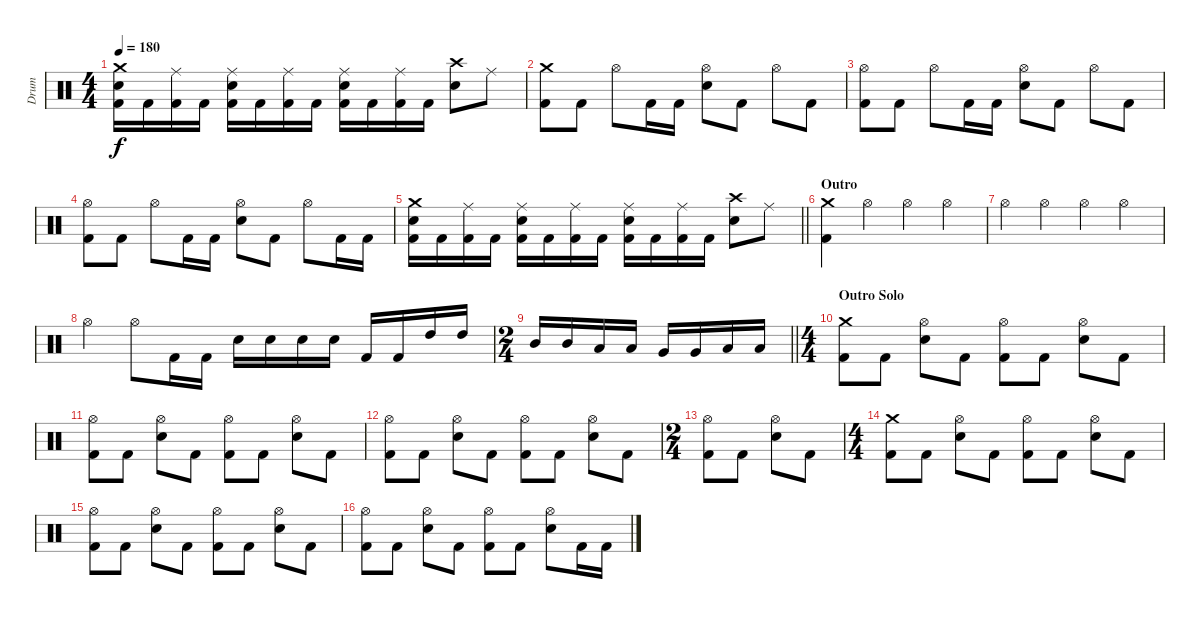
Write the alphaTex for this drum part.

\track ("Drum" "Drum") {instrument percussion}
\staff {score}
\articulation defaults
\ts (4 4)
\tempo 180
\clef neutral
\ks c
("Crash medium (hit)" "Electric Snare (hit)" "Kick (hit) 2").16{dy f} "Kick (hit) 2".16 ("Ride (middle)" "Kick (hit) 2").16 "Kick (hit) 2".16 ("Ride (middle)" "Electric Snare (hit)" "Kick (hit) 2").16 "Kick (hit) 2".16 ("Ride (middle)" "Kick (hit) 2").16 "Kick (hit) 2".16 ("Ride (middle)" "Electric Snare (hit)" "Kick (hit) 2").16 "Kick (hit) 2".16 ("Ride (middle)" "Kick (hit) 2").16 "Kick (hit) 2".16 ("Crash high (hit)" "Electric Snare (hit)").8 "Ride (middle)".8 |
("Crash medium (hit)" "Kick (hit) 2").8 "Kick (hit) 2".8 "Hi-Hat (open)".8 "Kick (hit) 2".16 "Kick (hit) 2".16 ("Hi-Hat (open)" "Electric Snare (hit)").8 "Kick (hit) 2".8 "Hi-Hat (open)".8 "Kick (hit) 2".8 |
("Hi-Hat (open)" "Kick (hit) 2").8 "Kick (hit) 2".8 "Hi-Hat (open)".8 "Kick (hit) 2".16 "Kick (hit) 2".16 ("Hi-Hat (open)" "Electric Snare (hit)").8 "Kick (hit) 2".8 "Hi-Hat (open)".8 "Kick (hit) 2".8 |
("Hi-Hat (open)" "Kick (hit) 2").8 "Kick (hit) 2".8 "Hi-Hat (open)".8 "Kick (hit) 2".16 "Kick (hit) 2".16 ("Hi-Hat (open)" "Electric Snare (hit)").8 "Kick (hit) 2".8 "Hi-Hat (open)".8 "Kick (hit) 2".16 "Kick (hit) 2".16 |
\barLineRight lightlight
("Crash medium (hit)" "Electric Snare (hit)" "Kick (hit) 2").16 "Kick (hit) 2".16 ("Ride (middle)" "Kick (hit) 2").16 "Kick (hit) 2".16 ("Ride (middle)" "Electric Snare (hit)" "Kick (hit) 2").16 "Kick (hit) 2".16 ("Ride (middle)" "Kick (hit) 2").16 "Kick (hit) 2".16 ("Ride (middle)" "Electric Snare (hit)" "Kick (hit) 2").16 "Kick (hit) 2".16 ("Ride (middle)" "Kick (hit) 2").16 "Kick (hit) 2".16 ("Crash high (hit)" "Electric Snare (hit)").8 "Ride (middle)".8 |
\section ("" "Outro")
("Crash medium (hit)" "Kick (hit) 2").4 "Hi-Hat (open)".4 "Hi-Hat (open)".4 "Hi-Hat (open)".4 |
"Hi-Hat (open)".4 "Hi-Hat (open)".4 "Hi-Hat (open)".4 "Hi-Hat (open)".4 |
"Hi-Hat (open)".4 "Hi-Hat (open)".8 "Kick (hit) 2".16 "Kick (hit) 2".16 "Electric Snare (hit)".16 "Electric Snare (hit)".16 "Electric Snare (hit)".16 "Electric Snare (hit)".16 "Kick (hit) 2".16 "Kick (hit) 2".16 "High Tom (hit)".16 "High Tom (hit)".16 |
\ts (2 4)
\barLineRight lightlight "Mid Tom (hit)".16 "Mid Tom (hit)".16 "Low Tom (hit)".16 "Low Tom (hit)".16 "Very Low Tom (hit)".16 "Very Low Tom (hit)".16 "Low Floor Tom (hit)".16 "Low Floor Tom (hit)".16
|
\ts (4 4)
\section ("" "Outro Solo")
("Crash medium (hit)" "Kick (hit) 2").8 "Kick (hit) 2".8 ("Hi-Hat (open)" "Electric Snare (hit)").8 "Kick (hit) 2".8 ("Hi-Hat (open)" "Kick (hit) 2").8 "Kick (hit) 2".8 ("Hi-Hat (open)" "Electric Snare (hit)").8 "Kick (hit) 2".8 |
("Hi-Hat (open)" "Kick (hit) 2").8 "Kick (hit) 2".8 ("Hi-Hat (open)" "Electric Snare (hit)").8 "Kick (hit) 2".8 ("Hi-Hat (open)" "Kick (hit) 2").8 "Kick (hit) 2".8 ("Hi-Hat (open)" "Electric Snare (hit)").8 "Kick (hit) 2".8 |
("Hi-Hat (open)" "Kick (hit) 2").8 "Kick (hit) 2".8 ("Hi-Hat (open)" "Electric Snare (hit)").8 "Kick (hit) 2".8 ("Hi-Hat (open)" "Kick (hit) 2").8 "Kick (hit) 2".8 ("Hi-Hat (open)" "Electric Snare (hit)").8 "Kick (hit) 2".8 |
\ts (2 4)
("Hi-Hat (open)" "Kick (hit) 2").8 "Kick (hit) 2".8 ("Hi-Hat (open)" "Electric Snare (hit)").8 "Kick (hit) 2".8 |
\ts (4 4)
("Crash medium (hit)" "Kick (hit) 2").8 "Kick (hit) 2".8 ("Hi-Hat (open)" "Electric Snare (hit)").8 "Kick (hit) 2".8 ("Hi-Hat (open)" "Kick (hit) 2").8 "Kick (hit) 2".8 ("Hi-Hat (open)" "Electric Snare (hit)").8 "Kick (hit) 2".8 |
("Hi-Hat (open)" "Kick (hit) 2").8 "Kick (hit) 2".8 ("Hi-Hat (open)" "Electric Snare (hit)").8 "Kick (hit) 2".8 ("Hi-Hat (open)" "Kick (hit) 2").8 "Kick (hit) 2".8 ("Hi-Hat (open)" "Electric Snare (hit)").8 "Kick (hit) 2".8 |
("Hi-Hat (open)" "Kick (hit) 2").8 "Kick (hit) 2".8 ("Hi-Hat (open)" "Electric Snare (hit)").8 "Kick (hit) 2".8 ("Hi-Hat (open)" "Kick (hit) 2").8 "Kick (hit) 2".8 ("Hi-Hat (open)" "Electric Snare (hit)").8 "Kick (hit) 2".16 "Kick (hit) 2".16
